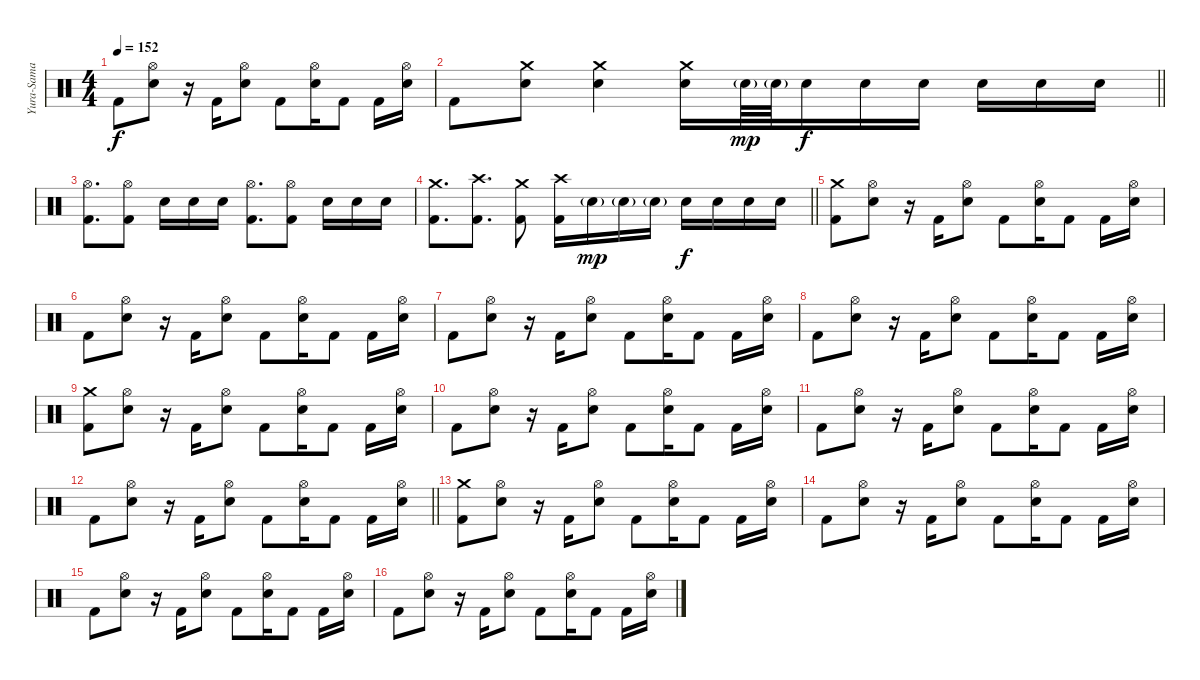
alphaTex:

\track ("Yura-Sama" "Yura-Sama") {instrument percussion}
\staff {score}
\articulation defaults
\ts (4 4)
\tempo 152
\clef neutral
\ks c "Kick (hit) 2".8{dy f}
("Electric Snare (hit)" "Hi-Hat (open)").8 r.16 "Kick (hit) 2".16 ("Electric Snare (hit)" "Hi-Hat (open)").8 "Kick (hit) 2".8 ("Electric Snare (hit)" "Hi-Hat (open)").16 "Kick (hit) 2".8 "Kick (hit) 2".16 ("Electric Snare (hit)" "Hi-Hat (open)").16 |
\barLineRight lightlight "Kick (hit) 2".8
("Electric Snare (hit)" "Crash medium (hit)").8 ("Electric Snare (hit)" "Crash medium (hit)").4 ("Electric Snare (hit)" "Crash medium (hit)").16 "Electric Snare (hit)"{g}.64{dy mp} "Electric Snare (hit)"{g}.64 "Electric Snare (hit)".16{dy f} "Electric Snare (hit)".16 "Electric Snare (hit)".16 "Electric Snare (hit)".16 "Electric Snare (hit)".16 "Electric Snare (hit)".16 |
("Kick (hit) 2" "Hi-Hat (open)").8{d} ("Kick (hit) 2" "Hi-Hat (open)").8 "Electric Snare (hit)".16 "Electric Snare (hit)".16 "Electric Snare (hit)".16 ("Kick (hit) 2" "Hi-Hat (open)").8{d} ("Kick (hit) 2" "Hi-Hat (open)").8 "Electric Snare (hit)".16 "Electric Snare (hit)".16 "Electric Snare (hit)".16 |
\barLineRight lightlight
("Kick (hit) 2" "Crash medium (hit)").8{d} ("Kick (hit) 2" "Crash high (hit)").8{d} ("Kick (hit) 2" "Crash medium (hit)").8 ("Kick (hit) 2" "Crash high (hit)").16 "Electric Snare (hit)"{g}.16{dy mp} "Electric Snare (hit)"{g}.16 "Electric Snare (hit)"{g}.16 "Electric Snare (hit)".16{dy f} "Electric Snare (hit)".16 "Electric Snare (hit)".16 "Electric Snare (hit)".16 |
("Kick (hit) 2" "Crash medium (hit)").8 ("Electric Snare (hit)" "Hi-Hat (open)").8 r.16 "Kick (hit) 2".16 ("Electric Snare (hit)" "Hi-Hat (open)").8 "Kick (hit) 2".8 ("Electric Snare (hit)" "Hi-Hat (open)").16 "Kick (hit) 2".8 "Kick (hit) 2".16 ("Electric Snare (hit)" "Hi-Hat (open)").16 |
"Kick (hit) 2".8 ("Electric Snare (hit)" "Hi-Hat (open)").8 r.16 "Kick (hit) 2".16 ("Electric Snare (hit)" "Hi-Hat (open)").8 "Kick (hit) 2".8 ("Electric Snare (hit)" "Hi-Hat (open)").16 "Kick (hit) 2".8 "Kick (hit) 2".16 ("Electric Snare (hit)" "Hi-Hat (open)").16 |
"Kick (hit) 2".8 ("Electric Snare (hit)" "Hi-Hat (open)").8 r.16 "Kick (hit) 2".16 ("Electric Snare (hit)" "Hi-Hat (open)").8 "Kick (hit) 2".8 ("Electric Snare (hit)" "Hi-Hat (open)").16 "Kick (hit) 2".8 "Kick (hit) 2".16 ("Electric Snare (hit)" "Hi-Hat (open)").16 |
"Kick (hit) 2".8 ("Electric Snare (hit)" "Hi-Hat (open)").8 r.16 "Kick (hit) 2".16 ("Electric Snare (hit)" "Hi-Hat (open)").8 "Kick (hit) 2".8 ("Electric Snare (hit)" "Hi-Hat (open)").16 "Kick (hit) 2".8 "Kick (hit) 2".16 ("Electric Snare (hit)" "Hi-Hat (open)").16 |
("Kick (hit) 2" "Crash medium (hit)").8 ("Electric Snare (hit)" "Hi-Hat (open)").8 r.16 "Kick (hit) 2".16 ("Electric Snare (hit)" "Hi-Hat (open)").8 "Kick (hit) 2".8 ("Electric Snare (hit)" "Hi-Hat (open)").16 "Kick (hit) 2".8 "Kick (hit) 2".16 ("Electric Snare (hit)" "Hi-Hat (open)").16 |
"Kick (hit) 2".8 ("Electric Snare (hit)" "Hi-Hat (open)").8 r.16 "Kick (hit) 2".16 ("Electric Snare (hit)" "Hi-Hat (open)").8 "Kick (hit) 2".8 ("Electric Snare (hit)" "Hi-Hat (open)").16 "Kick (hit) 2".8 "Kick (hit) 2".16 ("Electric Snare (hit)" "Hi-Hat (open)").16 |
"Kick (hit) 2".8 ("Electric Snare (hit)" "Hi-Hat (open)").8 r.16 "Kick (hit) 2".16 ("Electric Snare (hit)" "Hi-Hat (open)").8 "Kick (hit) 2".8 ("Electric Snare (hit)" "Hi-Hat (open)").16 "Kick (hit) 2".8 "Kick (hit) 2".16 ("Electric Snare (hit)" "Hi-Hat (open)").16 |
\barLineRight lightlight "Kick (hit) 2".8
("Electric Snare (hit)" "Hi-Hat (open)").8 r.16 "Kick (hit) 2".16 ("Electric Snare (hit)" "Hi-Hat (open)").8 "Kick (hit) 2".8 ("Electric Snare (hit)" "Hi-Hat (open)").16 "Kick (hit) 2".8 "Kick (hit) 2".16 ("Electric Snare (hit)" "Hi-Hat (open)").16 |
("Kick (hit) 2" "Crash medium (hit)").8 ("Electric Snare (hit)" "Hi-Hat (open)").8 r.16 "Kick (hit) 2".16 ("Electric Snare (hit)" "Hi-Hat (open)").8 "Kick (hit) 2".8 ("Electric Snare (hit)" "Hi-Hat (open)").16 "Kick (hit) 2".8 "Kick (hit) 2".16 ("Electric Snare (hit)" "Hi-Hat (open)").16 |
"Kick (hit) 2".8 ("Electric Snare (hit)" "Hi-Hat (open)").8 r.16 "Kick (hit) 2".16 ("Electric Snare (hit)" "Hi-Hat (open)").8 "Kick (hit) 2".8 ("Electric Snare (hit)" "Hi-Hat (open)").16 "Kick (hit) 2".8 "Kick (hit) 2".16 ("Electric Snare (hit)" "Hi-Hat (open)").16 |
"Kick (hit) 2".8 ("Electric Snare (hit)" "Hi-Hat (open)").8 r.16 "Kick (hit) 2".16 ("Electric Snare (hit)" "Hi-Hat (open)").8 "Kick (hit) 2".8 ("Electric Snare (hit)" "Hi-Hat (open)").16 "Kick (hit) 2".8 "Kick (hit) 2".16 ("Electric Snare (hit)" "Hi-Hat (open)").16 |
"Kick (hit) 2".8 ("Electric Snare (hit)" "Hi-Hat (open)").8 r.16 "Kick (hit) 2".16 ("Electric Snare (hit)" "Hi-Hat (open)").8 "Kick (hit) 2".8 ("Electric Snare (hit)" "Hi-Hat (open)").16 "Kick (hit) 2".8 "Kick (hit) 2".16 ("Electric Snare (hit)" "Hi-Hat (open)").16
